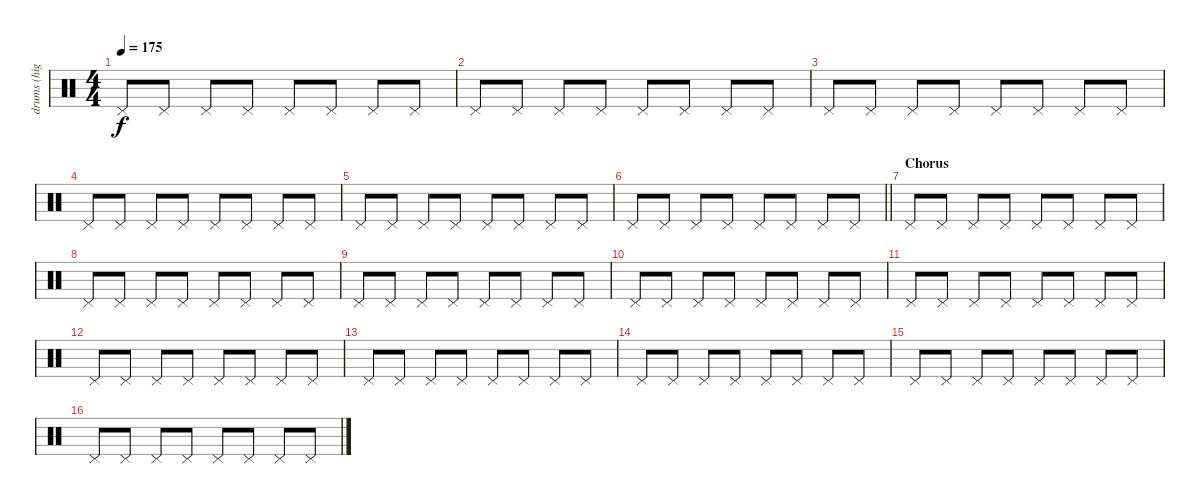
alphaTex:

\track ("drums (highhat)" "drums (hig") {instrument percussion}
\staff {score}
\articulation defaults
\ts (4 4)
\tempo 175
\clef neutral
\ks c "Pedal Hi-Hat (hit)".8{dy f} "Pedal Hi-Hat (hit)".8 "Pedal Hi-Hat (hit)".8 "Pedal Hi-Hat (hit)".8 "Pedal Hi-Hat (hit)".8 "Pedal Hi-Hat (hit)".8 "Pedal Hi-Hat (hit)".8 "Pedal Hi-Hat (hit)".8
|
"Pedal Hi-Hat (hit)".8 "Pedal Hi-Hat (hit)".8 "Pedal Hi-Hat (hit)".8 "Pedal Hi-Hat (hit)".8 "Pedal Hi-Hat (hit)".8 "Pedal Hi-Hat (hit)".8 "Pedal Hi-Hat (hit)".8 "Pedal Hi-Hat (hit)".8 |
"Pedal Hi-Hat (hit)".8 "Pedal Hi-Hat (hit)".8 "Pedal Hi-Hat (hit)".8 "Pedal Hi-Hat (hit)".8 "Pedal Hi-Hat (hit)".8 "Pedal Hi-Hat (hit)".8 "Pedal Hi-Hat (hit)".8 "Pedal Hi-Hat (hit)".8 |
"Pedal Hi-Hat (hit)".8 "Pedal Hi-Hat (hit)".8 "Pedal Hi-Hat (hit)".8 "Pedal Hi-Hat (hit)".8 "Pedal Hi-Hat (hit)".8 "Pedal Hi-Hat (hit)".8 "Pedal Hi-Hat (hit)".8 "Pedal Hi-Hat (hit)".8 |
"Pedal Hi-Hat (hit)".8 "Pedal Hi-Hat (hit)".8 "Pedal Hi-Hat (hit)".8 "Pedal Hi-Hat (hit)".8 "Pedal Hi-Hat (hit)".8 "Pedal Hi-Hat (hit)".8 "Pedal Hi-Hat (hit)".8 "Pedal Hi-Hat (hit)".8 |
\barLineRight lightlight "Pedal Hi-Hat (hit)".8 "Pedal Hi-Hat (hit)".8 "Pedal Hi-Hat (hit)".8 "Pedal Hi-Hat (hit)".8 "Pedal Hi-Hat (hit)".8 "Pedal Hi-Hat (hit)".8 "Pedal Hi-Hat (hit)".8 "Pedal Hi-Hat (hit)".8
|
\section ("" "Chorus")
"Pedal Hi-Hat (hit)".8 "Pedal Hi-Hat (hit)".8 "Pedal Hi-Hat (hit)".8 "Pedal Hi-Hat (hit)".8 "Pedal Hi-Hat (hit)".8 "Pedal Hi-Hat (hit)".8 "Pedal Hi-Hat (hit)".8 "Pedal Hi-Hat (hit)".8 |
"Pedal Hi-Hat (hit)".8 "Pedal Hi-Hat (hit)".8 "Pedal Hi-Hat (hit)".8 "Pedal Hi-Hat (hit)".8 "Pedal Hi-Hat (hit)".8 "Pedal Hi-Hat (hit)".8 "Pedal Hi-Hat (hit)".8 "Pedal Hi-Hat (hit)".8 |
"Pedal Hi-Hat (hit)".8 "Pedal Hi-Hat (hit)".8 "Pedal Hi-Hat (hit)".8 "Pedal Hi-Hat (hit)".8 "Pedal Hi-Hat (hit)".8 "Pedal Hi-Hat (hit)".8 "Pedal Hi-Hat (hit)".8 "Pedal Hi-Hat (hit)".8 |
"Pedal Hi-Hat (hit)".8 "Pedal Hi-Hat (hit)".8 "Pedal Hi-Hat (hit)".8 "Pedal Hi-Hat (hit)".8 "Pedal Hi-Hat (hit)".8 "Pedal Hi-Hat (hit)".8 "Pedal Hi-Hat (hit)".8 "Pedal Hi-Hat (hit)".8 |
"Pedal Hi-Hat (hit)".8 "Pedal Hi-Hat (hit)".8 "Pedal Hi-Hat (hit)".8 "Pedal Hi-Hat (hit)".8 "Pedal Hi-Hat (hit)".8 "Pedal Hi-Hat (hit)".8 "Pedal Hi-Hat (hit)".8 "Pedal Hi-Hat (hit)".8 |
"Pedal Hi-Hat (hit)".8 "Pedal Hi-Hat (hit)".8 "Pedal Hi-Hat (hit)".8 "Pedal Hi-Hat (hit)".8 "Pedal Hi-Hat (hit)".8 "Pedal Hi-Hat (hit)".8 "Pedal Hi-Hat (hit)".8 "Pedal Hi-Hat (hit)".8 |
"Pedal Hi-Hat (hit)".8 "Pedal Hi-Hat (hit)".8 "Pedal Hi-Hat (hit)".8 "Pedal Hi-Hat (hit)".8 "Pedal Hi-Hat (hit)".8 "Pedal Hi-Hat (hit)".8 "Pedal Hi-Hat (hit)".8 "Pedal Hi-Hat (hit)".8 |
"Pedal Hi-Hat (hit)".8 "Pedal Hi-Hat (hit)".8 "Pedal Hi-Hat (hit)".8 "Pedal Hi-Hat (hit)".8 "Pedal Hi-Hat (hit)".8 "Pedal Hi-Hat (hit)".8 "Pedal Hi-Hat (hit)".8 "Pedal Hi-Hat (hit)".8 |
"Pedal Hi-Hat (hit)".8 "Pedal Hi-Hat (hit)".8 "Pedal Hi-Hat (hit)".8 "Pedal Hi-Hat (hit)".8 "Pedal Hi-Hat (hit)".8 "Pedal Hi-Hat (hit)".8 "Pedal Hi-Hat (hit)".8 "Pedal Hi-Hat (hit)".8 |
"Pedal Hi-Hat (hit)".8 "Pedal Hi-Hat (hit)".8 "Pedal Hi-Hat (hit)".8 "Pedal Hi-Hat (hit)".8 "Pedal Hi-Hat (hit)".8 "Pedal Hi-Hat (hit)".8 "Pedal Hi-Hat (hit)".8 "Pedal Hi-Hat (hit)".8
